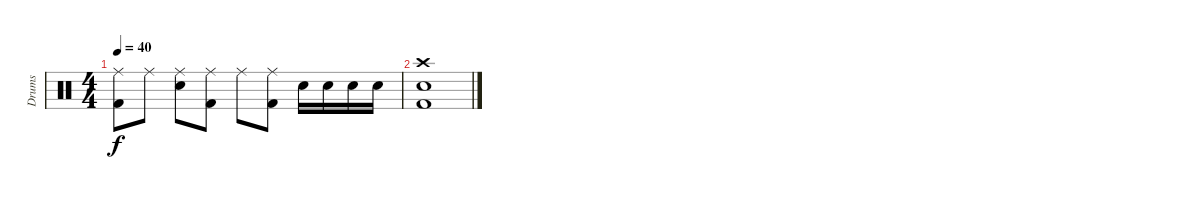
\track ("Drums" "Drums") {instrument percussion}
\staff {score}
\articulation defaults
\ts (4 4)
\tempo 40
\clef neutral
\ks c
("Ride (middle)" "Kick (hit) 2").8{dy f} "Ride (middle)".8 ("Ride (middle)" "Electric Snare (hit)").8 ("Ride (middle)" "Kick (hit) 2").8 "Ride (middle)".8 ("Ride (middle)" "Kick (hit) 2").8 "Electric Snare (hit)".16 "Electric Snare (hit)".16 "Electric Snare (hit)".16 "Electric Snare (hit)".16 |
("Crash high (hit)" "Electric Snare (hit)" "Kick (hit) 2").1
